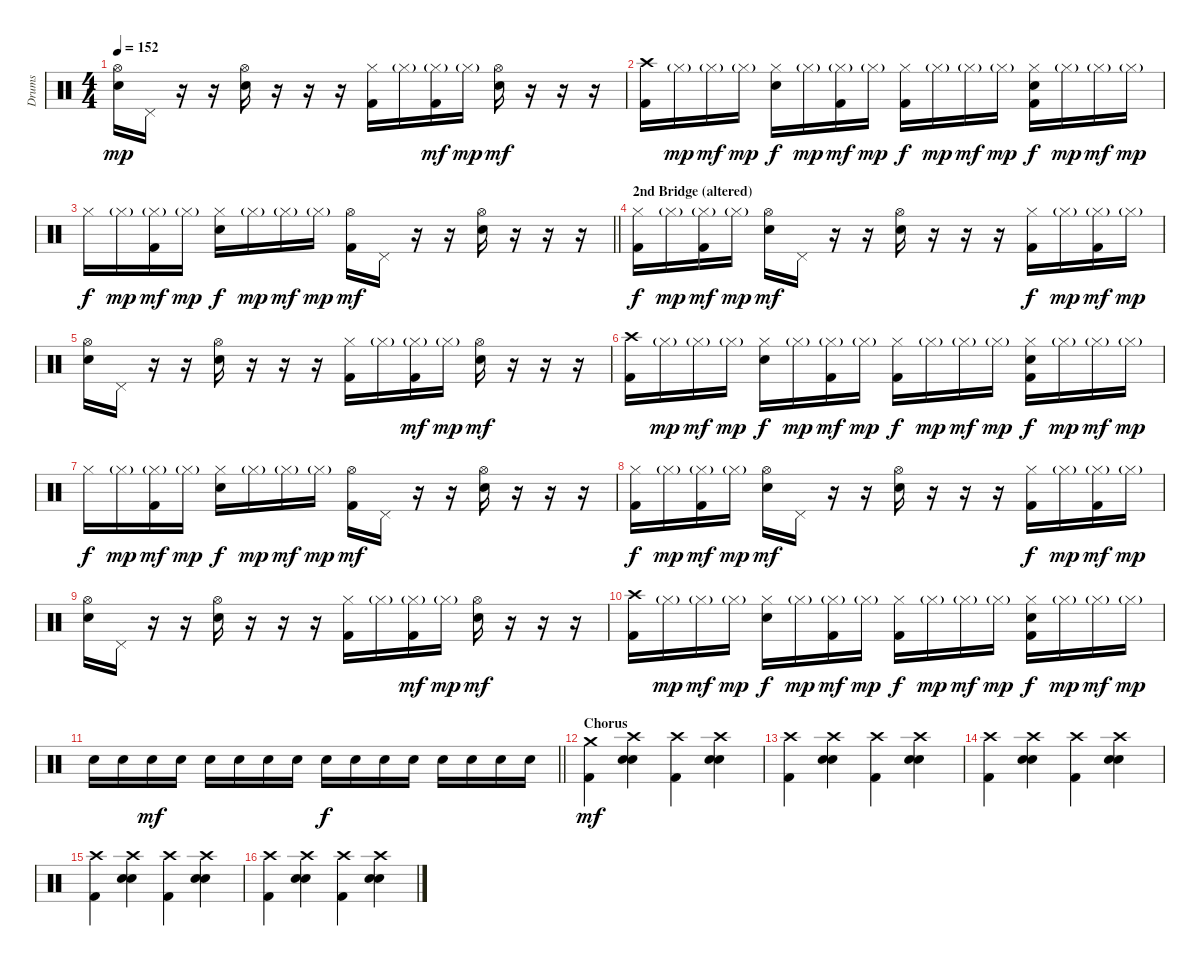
\track ("Drums" "Drums") {instrument percussion}
\staff {score}
\articulation defaults
\ts (4 4)
\tempo 152
\clef neutral
\ks c
("Hi-Hat (open)" "Snare (hit) 2").16{dy mp} "Pedal Hi-Hat (hit)".16 r.16 r.16 ("Hi-Hat (open)" "Snare (hit) 2").16 r.16 r.16 r.16 ("Hi-Hat (closed)" "Kick (hit) 2").16 "Hi-Hat (closed)"{g}.16 ("Hi-Hat (closed)"{g} "Kick (hit) 2").16{dy mf} "Hi-Hat (closed)"{g}.16{dy mp} ("Hi-Hat (open)" "Snare (hit) 2").16{dy mf} r.16 r.16 r.16 |
("Crash high (hit)" "Kick (hit) 2").16 "Hi-Hat (closed)"{g}.16{dy mp} "Hi-Hat (closed)"{g}.16{dy mf} "Hi-Hat (closed)"{g}.16{dy mp} ("Hi-Hat (closed)" "Snare (hit) 2").16{dy f} "Hi-Hat (closed)"{g}.16{dy mp} ("Hi-Hat (closed)"{g} "Kick (hit) 2").16{dy mf} "Hi-Hat (closed)"{g}.16{dy mp} ("Hi-Hat (closed)" "Kick (hit) 2").16{dy f} "Hi-Hat (closed)"{g}.16{dy mp} "Hi-Hat (closed)"{g}.16{dy mf} "Hi-Hat (closed)"{g}.16{dy mp} ("Hi-Hat (closed)" "Snare (hit) 2" "Kick (hit) 2").16{dy f} "Hi-Hat (closed)"{g}.16{dy mp} "Hi-Hat (closed)"{g}.16{dy mf} "Hi-Hat (closed)"{g}.16{dy mp} |
\barLineRight lightlight "Hi-Hat (closed)".16{dy f} "Hi-Hat (closed)"{g}.16{dy mp}
("Hi-Hat (closed)"{g} "Kick (hit) 2").16{dy mf} "Hi-Hat (closed)"{g}.16{dy mp} ("Hi-Hat (closed)" "Snare (hit) 2").16{dy f} "Hi-Hat (closed)"{g}.16{dy mp} "Hi-Hat (closed)"{g}.16{dy mf} "Hi-Hat (closed)"{g}.16{dy mp} ("Hi-Hat (open)" "Kick (hit) 2").16{dy mf} "Pedal Hi-Hat (hit)".16 r.16 r.16 ("Hi-Hat (open)" "Snare (hit) 2").16 r.16 r.16 r.16 |
\section ("" "2nd Bridge (altered)")
("Hi-Hat (closed)" "Kick (hit) 2").16{dy f} "Hi-Hat (closed)"{g}.16{dy mp} ("Hi-Hat (closed)"{g} "Kick (hit) 2").16{dy mf} "Hi-Hat (closed)"{g}.16{dy mp} ("Hi-Hat (open)" "Snare (hit) 2").16{dy mf} "Pedal Hi-Hat (hit)".16 r.16 r.16 ("Hi-Hat (open)" "Snare (hit) 2").16 r.16 r.16 r.16 ("Hi-Hat (closed)" "Kick (hit) 2").16{dy f} "Hi-Hat (closed)"{g}.16{dy mp} ("Hi-Hat (closed)"{g} "Kick (hit) 2").16{dy mf} "Hi-Hat (closed)"{g}.16{dy mp} |
("Hi-Hat (open)" "Snare (hit) 2").16 "Pedal Hi-Hat (hit)".16 r.16 r.16 ("Hi-Hat (open)" "Snare (hit) 2").16 r.16 r.16 r.16 ("Hi-Hat (closed)" "Kick (hit) 2").16 "Hi-Hat (closed)"{g}.16 ("Hi-Hat (closed)"{g} "Kick (hit) 2").16{dy mf} "Hi-Hat (closed)"{g}.16{dy mp} ("Hi-Hat (open)" "Snare (hit) 2").16{dy mf} r.16 r.16 r.16 |
("Crash high (hit)" "Kick (hit) 2").16 "Hi-Hat (closed)"{g}.16{dy mp} "Hi-Hat (closed)"{g}.16{dy mf} "Hi-Hat (closed)"{g}.16{dy mp} ("Hi-Hat (closed)" "Snare (hit) 2").16{dy f} "Hi-Hat (closed)"{g}.16{dy mp} ("Hi-Hat (closed)"{g} "Kick (hit) 2").16{dy mf} "Hi-Hat (closed)"{g}.16{dy mp} ("Hi-Hat (closed)" "Kick (hit) 2").16{dy f} "Hi-Hat (closed)"{g}.16{dy mp} "Hi-Hat (closed)"{g}.16{dy mf} "Hi-Hat (closed)"{g}.16{dy mp} ("Hi-Hat (closed)" "Snare (hit) 2" "Kick (hit) 2").16{dy f} "Hi-Hat (closed)"{g}.16{dy mp} "Hi-Hat (closed)"{g}.16{dy mf} "Hi-Hat (closed)"{g}.16{dy mp} |
"Hi-Hat (closed)".16{dy f} "Hi-Hat (closed)"{g}.16{dy mp} ("Hi-Hat (closed)"{g} "Kick (hit) 2").16{dy mf} "Hi-Hat (closed)"{g}.16{dy mp} ("Hi-Hat (closed)" "Snare (hit) 2").16{dy f} "Hi-Hat (closed)"{g}.16{dy mp} "Hi-Hat (closed)"{g}.16{dy mf} "Hi-Hat (closed)"{g}.16{dy mp} ("Hi-Hat (open)" "Kick (hit) 2").16{dy mf} "Pedal Hi-Hat (hit)".16 r.16 r.16 ("Hi-Hat (open)" "Snare (hit) 2").16 r.16 r.16 r.16 |
("Hi-Hat (closed)" "Kick (hit) 2").16{dy f} "Hi-Hat (closed)"{g}.16{dy mp} ("Hi-Hat (closed)"{g} "Kick (hit) 2").16{dy mf} "Hi-Hat (closed)"{g}.16{dy mp} ("Hi-Hat (open)" "Snare (hit) 2").16{dy mf} "Pedal Hi-Hat (hit)".16 r.16 r.16 ("Hi-Hat (open)" "Snare (hit) 2").16 r.16 r.16 r.16 ("Hi-Hat (closed)" "Kick (hit) 2").16{dy f} "Hi-Hat (closed)"{g}.16{dy mp} ("Hi-Hat (closed)"{g} "Kick (hit) 2").16{dy mf} "Hi-Hat (closed)"{g}.16{dy mp} |
("Hi-Hat (open)" "Snare (hit) 2").16 "Pedal Hi-Hat (hit)".16 r.16 r.16 ("Hi-Hat (open)" "Snare (hit) 2").16 r.16 r.16 r.16 ("Hi-Hat (closed)" "Kick (hit) 2").16 "Hi-Hat (closed)"{g}.16 ("Hi-Hat (closed)"{g} "Kick (hit) 2").16{dy mf} "Hi-Hat (closed)"{g}.16{dy mp} ("Hi-Hat (open)" "Snare (hit) 2").16{dy mf} r.16 r.16 r.16 |
("Crash high (hit)" "Kick (hit) 2").16 "Hi-Hat (closed)"{g}.16{dy mp} "Hi-Hat (closed)"{g}.16{dy mf} "Hi-Hat (closed)"{g}.16{dy mp} ("Hi-Hat (closed)" "Snare (hit) 2").16{dy f} "Hi-Hat (closed)"{g}.16{dy mp} ("Hi-Hat (closed)"{g} "Kick (hit) 2").16{dy mf} "Hi-Hat (closed)"{g}.16{dy mp} ("Hi-Hat (closed)" "Kick (hit) 2").16{dy f} "Hi-Hat (closed)"{g}.16{dy mp} "Hi-Hat (closed)"{g}.16{dy mf} "Hi-Hat (closed)"{g}.16{dy mp} ("Hi-Hat (closed)" "Snare (hit) 2" "Kick (hit) 2").16{dy f} "Hi-Hat (closed)"{g}.16{dy mp} "Hi-Hat (closed)"{g}.16{dy mf} "Hi-Hat (closed)"{g}.16{dy mp} |
\barLineRight lightlight "Snare (hit) 2".16 "Snare (hit) 2".16 "Snare (hit) 2".16{dy mf} "Snare (hit) 2".16 "Snare (hit) 2".16 "Snare (hit) 2".16 "Snare (hit) 2".16 "Snare (hit) 2".16 "Snare (hit) 2".16{dy f} "Snare (hit) 2".16 "Snare (hit) 2".16 "Snare (hit) 2".16 "Snare (hit) 2".16 "Snare (hit) 2".16 "Snare (hit) 2".16 "Snare (hit) 2".16
|
\section ("" "Chorus")
("Crash medium (hit)" "Kick (hit) 2").4{dy mf} ("Crash high (hit)" "Electric Snare (hit)" "Snare (hit) 2").4 ("Crash high (hit)" "Kick (hit) 2").4 ("Crash high (hit)" "Electric Snare (hit)" "Snare (hit) 2").4 |
("Crash high (hit)" "Kick (hit) 2").4 ("Crash high (hit)" "Electric Snare (hit)" "Snare (hit) 2").4 ("Crash high (hit)" "Kick (hit) 2").4 ("Crash high (hit)" "Electric Snare (hit)" "Snare (hit) 2").4 |
("Crash high (hit)" "Kick (hit) 2").4 ("Crash high (hit)" "Electric Snare (hit)" "Snare (hit) 2").4 ("Crash high (hit)" "Kick (hit) 2").4 ("Crash high (hit)" "Electric Snare (hit)" "Snare (hit) 2").4 |
("Crash high (hit)" "Kick (hit) 2").4 ("Crash high (hit)" "Electric Snare (hit)" "Snare (hit) 2").4 ("Crash high (hit)" "Kick (hit) 2").4 ("Crash high (hit)" "Electric Snare (hit)" "Snare (hit) 2").4 |
("Crash high (hit)" "Kick (hit) 2").4 ("Crash high (hit)" "Electric Snare (hit)" "Snare (hit) 2").4 ("Crash high (hit)" "Kick (hit) 2").4 ("Crash high (hit)" "Electric Snare (hit)" "Snare (hit) 2").4
